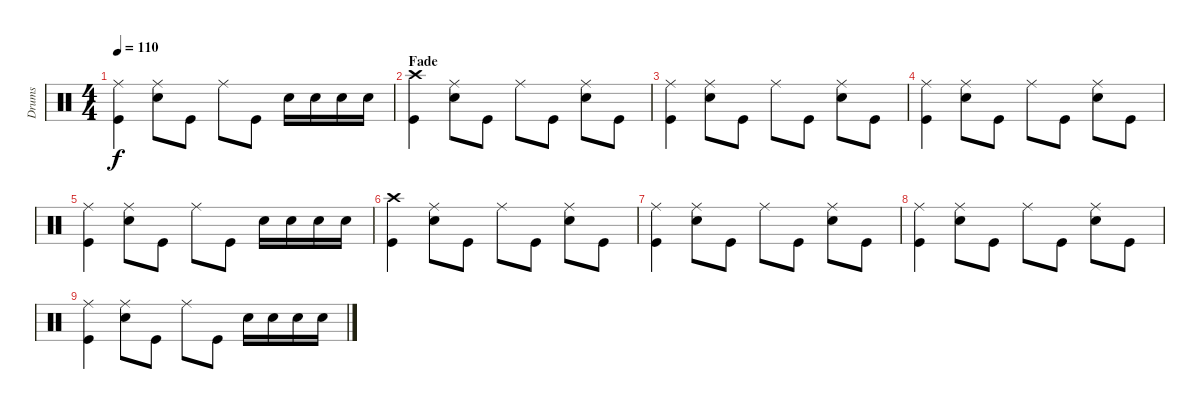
\track ("Drums" "Drums") {instrument percussion}
\staff {score}
\articulation defaults
\ts (4 4)
\tempo 110
\clef neutral
\ks c
("Ride (middle)" "Kick (hit)").4{dy f} ("Ride (middle)" "Electric Snare (hit)").8 "Kick (hit)".8 "Ride (middle)".8 "Kick (hit)".8 "Electric Snare (hit)".16 "Electric Snare (hit)".16 "Electric Snare (hit)".16 "Electric Snare (hit)".16 |
\section ("" "Fade")
("Crash high (hit)" "Kick (hit)").4{volume 6} ("Ride (middle)" "Electric Snare (hit)").8 "Kick (hit)".8 "Ride (middle)".8 "Kick (hit)".8 ("Ride (middle)" "Electric Snare (hit)").8 "Kick (hit)".8 |
("Ride (middle)" "Kick (hit)").4 ("Ride (middle)" "Electric Snare (hit)").8 "Kick (hit)".8 "Ride (middle)".8 "Kick (hit)".8 ("Ride (middle)" "Electric Snare (hit)").8 "Kick (hit)".8 |
("Ride (middle)" "Kick (hit)").4 ("Ride (middle)" "Electric Snare (hit)").8 "Kick (hit)".8 "Ride (middle)".8 "Kick (hit)".8 ("Ride (middle)" "Electric Snare (hit)").8 "Kick (hit)".8 |
("Ride (middle)" "Kick (hit)").4 ("Ride (middle)" "Electric Snare (hit)").8 "Kick (hit)".8 "Ride (middle)".8 "Kick (hit)".8 "Electric Snare (hit)".16 "Electric Snare (hit)".16 "Electric Snare (hit)".16 "Electric Snare (hit)".16 |
("Crash high (hit)" "Kick (hit)").4{volume 0} ("Ride (middle)" "Electric Snare (hit)").8 "Kick (hit)".8 "Ride (middle)".8 "Kick (hit)".8 ("Ride (middle)" "Electric Snare (hit)").8 "Kick (hit)".8 |
("Ride (middle)" "Kick (hit)").4 ("Ride (middle)" "Electric Snare (hit)").8 "Kick (hit)".8 "Ride (middle)".8 "Kick (hit)".8 ("Ride (middle)" "Electric Snare (hit)").8 "Kick (hit)".8 |
("Ride (middle)" "Kick (hit)").4 ("Ride (middle)" "Electric Snare (hit)").8 "Kick (hit)".8 "Ride (middle)".8 "Kick (hit)".8 ("Ride (middle)" "Electric Snare (hit)").8 "Kick (hit)".8 |
("Ride (middle)" "Kick (hit)").4 ("Ride (middle)" "Electric Snare (hit)").8 "Kick (hit)".8 "Ride (middle)".8 "Kick (hit)".8 "Electric Snare (hit)".16 "Electric Snare (hit)".16 "Electric Snare (hit)".16 "Electric Snare (hit)".16
